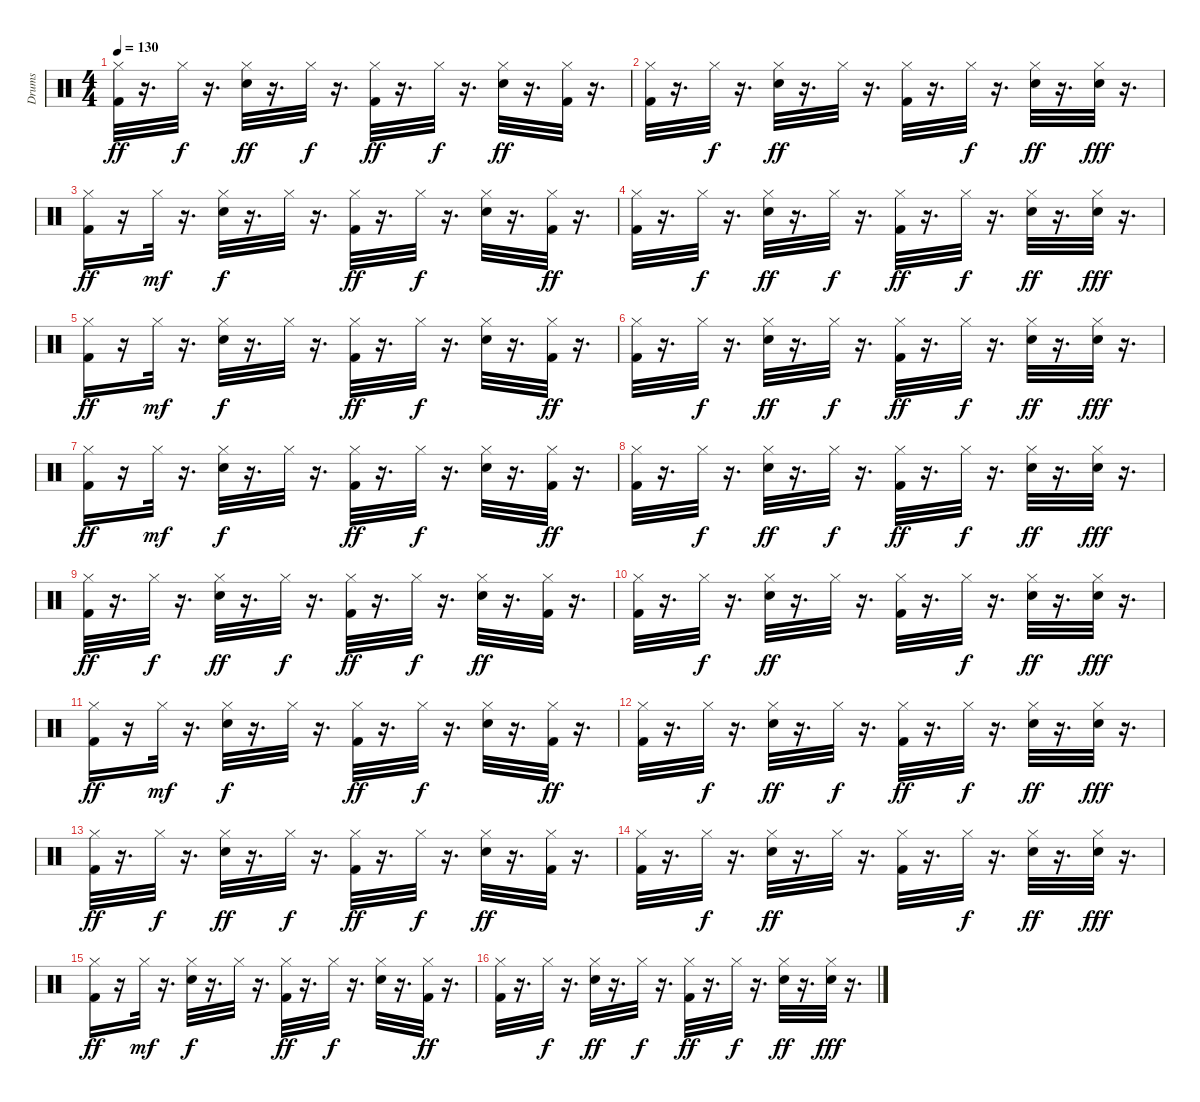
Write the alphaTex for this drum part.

\track ("Drums" "Drums") {instrument percussion}
\staff {score}
\articulation defaults
\ts (4 4)
\tempo 130
\clef neutral
\ks c
("Hi-Hat (closed)" "Kick (hit) 2").32{dy ff} r.16{d} "Hi-Hat (closed)".32{dy f} r.16{d} ("Snare (hit) 2" "Hi-Hat (closed)").32{dy ff} r.16{d} "Hi-Hat (closed)".32{dy f} r.16{d} ("Kick (hit) 2" "Hi-Hat (closed)").32{dy ff} r.16{d} "Hi-Hat (closed)".32{dy f} r.16{d} ("Hi-Hat (closed)" "Snare (hit) 2").32{dy ff} r.16{d} ("Kick (hit) 2" "Hi-Hat (closed)").32 r.16{d} |
("Kick (hit) 2" "Hi-Hat (closed)").32 r.16{d} "Hi-Hat (closed)".32{dy f} r.16{d} ("Hi-Hat (closed)" "Snare (hit) 2").32{dy ff} r.16{d} "Hi-Hat (closed)".32 r.16{d} ("Hi-Hat (closed)" "Kick (hit) 2").32 r.16{d} "Hi-Hat (closed)".32{dy f} r.16{d} ("Hi-Hat (closed)" "Snare (hit) 2").32{dy ff} r.16{d} ("Hi-Hat (closed)" "Hand Clap (hit)").32{dy fff} r.16{d} |
("Hi-Hat (closed)" "Kick (hit) 2").16{dy ff} r.16 "Hi-Hat (closed)".32{dy mf} r.16{d} ("Snare (hit) 2" "Hi-Hat (closed)").32{dy f} r.16{d} "Hi-Hat (closed)".32 r.16{d} ("Hi-Hat (closed)" "Kick (hit) 2").32{dy ff} r.16{d} "Hi-Hat (closed)".32{dy f} r.16{d} ("Snare (hit) 2" "Hi-Hat (closed)").32 r.16{d} ("Hi-Hat (closed)" "Kick (hit) 2").32{dy ff} r.16{d} |
("Hi-Hat (closed)" "Kick (hit) 2").32 r.16{d} "Hi-Hat (closed)".32{dy f} r.16{d} ("Hi-Hat (closed)" "Snare (hit) 2").32{dy ff} r.16{d} "Hi-Hat (closed)".32{dy f} r.16{d} ("Kick (hit) 2" "Hi-Hat (closed)").32{dy ff} r.16{d} "Hi-Hat (closed)".32{dy f} r.16{d} ("Snare (hit) 2" "Hi-Hat (closed)").32{dy ff} r.16{d} ("Hand Clap (hit)" "Hi-Hat (closed)").32{dy fff} r.16{d} |
("Kick (hit) 2" "Hi-Hat (closed)").16{dy ff} r.16 "Hi-Hat (closed)".32{dy mf} r.16{d} ("Hi-Hat (closed)" "Snare (hit) 2").32{dy f} r.16{d} "Hi-Hat (closed)".32 r.16{d} ("Hi-Hat (closed)" "Kick (hit) 2").32{dy ff} r.16{d} "Hi-Hat (closed)".32{dy f} r.16{d} ("Snare (hit) 2" "Hi-Hat (closed)").32 r.16{d} ("Kick (hit) 2" "Hi-Hat (closed)").32{dy ff} r.16{d} |
("Kick (hit) 2" "Hi-Hat (closed)").32 r.16{d} "Hi-Hat (closed)".32{dy f} r.16{d} ("Hi-Hat (closed)" "Snare (hit) 2").32{dy ff} r.16{d} "Hi-Hat (closed)".32{dy f} r.16{d} ("Kick (hit) 2" "Hi-Hat (closed)").32{dy ff} r.16{d} "Hi-Hat (closed)".32{dy f} r.16{d} ("Hi-Hat (closed)" "Snare (hit) 2").32{dy ff} r.16{d} ("Hi-Hat (closed)" "Hand Clap (hit)").32{dy fff} r.16{d} |
("Hi-Hat (closed)" "Kick (hit) 2").16{dy ff} r.16 "Hi-Hat (closed)".32{dy mf} r.16{d} ("Hi-Hat (closed)" "Snare (hit) 2").32{dy f} r.16{d} "Hi-Hat (closed)".32 r.16{d} ("Kick (hit) 2" "Hi-Hat (closed)").32{dy ff} r.16{d} "Hi-Hat (closed)".32{dy f} r.16{d} ("Hi-Hat (closed)" "Snare (hit) 2").32 r.16{d} ("Kick (hit) 2" "Hi-Hat (closed)").32{dy ff} r.16{d} |
("Kick (hit) 2" "Hi-Hat (closed)").32 r.16{d} "Hi-Hat (closed)".32{dy f} r.16{d} ("Hi-Hat (closed)" "Snare (hit) 2").32{dy ff} r.16{d} "Hi-Hat (closed)".32{dy f} r.16{d} ("Kick (hit) 2" "Hi-Hat (closed)").32{dy ff} r.16{d} "Hi-Hat (closed)".32{dy f} r.16{d} ("Snare (hit) 2" "Hi-Hat (closed)").32{dy ff} r.16{d} ("Hi-Hat (closed)" "Hand Clap (hit)").32{dy fff} r.16{d} |
("Kick (hit) 2" "Hi-Hat (closed)").32{dy ff} r.16{d} "Hi-Hat (closed)".32{dy f} r.16{d} ("Snare (hit) 2" "Hi-Hat (closed)").32{dy ff} r.16{d} "Hi-Hat (closed)".32{dy f} r.16{d} ("Kick (hit) 2" "Hi-Hat (closed)").32{dy ff} r.16{d} "Hi-Hat (closed)".32{dy f} r.16{d} ("Hi-Hat (closed)" "Snare (hit) 2").32{dy ff} r.16{d} ("Kick (hit) 2" "Hi-Hat (closed)").32 r.16{d} |
("Kick (hit) 2" "Hi-Hat (closed)").32 r.16{d} "Hi-Hat (closed)".32{dy f} r.16{d} ("Hi-Hat (closed)" "Snare (hit) 2").32{dy ff} r.16{d} "Hi-Hat (closed)".32 r.16{d} ("Kick (hit) 2" "Hi-Hat (closed)").32 r.16{d} "Hi-Hat (closed)".32{dy f} r.16{d} ("Hi-Hat (closed)" "Snare (hit) 2").32{dy ff} r.16{d} ("Hi-Hat (closed)" "Hand Clap (hit)").32{dy fff} r.16{d} |
("Hi-Hat (closed)" "Kick (hit) 2").16{dy ff} r.16 "Hi-Hat (closed)".32{dy mf} r.16{d} ("Hi-Hat (closed)" "Snare (hit) 2").32{dy f} r.16{d} "Hi-Hat (closed)".32 r.16{d} ("Hi-Hat (closed)" "Kick (hit) 2").32{dy ff} r.16{d} "Hi-Hat (closed)".32{dy f} r.16{d} ("Snare (hit) 2" "Hi-Hat (closed)").32 r.16{d} ("Kick (hit) 2" "Hi-Hat (closed)").32{dy ff} r.16{d} |
("Kick (hit) 2" "Hi-Hat (closed)").32 r.16{d} "Hi-Hat (closed)".32{dy f} r.16{d} ("Snare (hit) 2" "Hi-Hat (closed)").32{dy ff} r.16{d} "Hi-Hat (closed)".32{dy f} r.16{d} ("Kick (hit) 2" "Hi-Hat (closed)").32{dy ff} r.16{d} "Hi-Hat (closed)".32{dy f} r.16{d} ("Snare (hit) 2" "Hi-Hat (closed)").32{dy ff} r.16{d} ("Hand Clap (hit)" "Hi-Hat (closed)").32{dy fff} r.16{d} |
("Hi-Hat (closed)" "Kick (hit) 2").32{dy ff} r.16{d} "Hi-Hat (closed)".32{dy f} r.16{d} ("Snare (hit) 2" "Hi-Hat (closed)").32{dy ff} r.16{d} "Hi-Hat (closed)".32{dy f} r.16{d} ("Hi-Hat (closed)" "Kick (hit) 2").32{dy ff} r.16{d} "Hi-Hat (closed)".32{dy f} r.16{d} ("Hi-Hat (closed)" "Snare (hit) 2").32{dy ff} r.16{d} ("Hi-Hat (closed)" "Kick (hit) 2").32 r.16{d} |
("Hi-Hat (closed)" "Kick (hit) 2").32 r.16{d} "Hi-Hat (closed)".32{dy f} r.16{d} ("Hi-Hat (closed)" "Snare (hit) 2").32{dy ff} r.16{d} "Hi-Hat (closed)".32 r.16{d} ("Hi-Hat (closed)" "Kick (hit) 2").32 r.16{d} "Hi-Hat (closed)".32{dy f} r.16{d} ("Snare (hit) 2" "Hi-Hat (closed)").32{dy ff} r.16{d} ("Hi-Hat (closed)" "Hand Clap (hit)").32{dy fff} r.16{d} |
("Hi-Hat (closed)" "Kick (hit) 2").16{dy ff} r.16 "Hi-Hat (closed)".32{dy mf} r.16{d} ("Hi-Hat (closed)" "Snare (hit) 2").32{dy f} r.16{d} "Hi-Hat (closed)".32 r.16{d} ("Hi-Hat (closed)" "Kick (hit) 2").32{dy ff} r.16{d} "Hi-Hat (closed)".32{dy f} r.16{d} ("Hi-Hat (closed)" "Snare (hit) 2").32 r.16{d} ("Hi-Hat (closed)" "Kick (hit) 2").32{dy ff} r.16{d} |
("Hi-Hat (closed)" "Kick (hit) 2").32 r.16{d} "Hi-Hat (closed)".32{dy f} r.16{d} ("Hi-Hat (closed)" "Snare (hit) 2").32{dy ff} r.16{d} "Hi-Hat (closed)".32{dy f} r.16{d} ("Hi-Hat (closed)" "Kick (hit) 2").32{dy ff} r.16{d} "Hi-Hat (closed)".32{dy f} r.16{d} ("Hi-Hat (closed)" "Snare (hit) 2").32{dy ff} r.16{d} ("Hi-Hat (closed)" "Hand Clap (hit)").32{dy fff} r.16{d}
